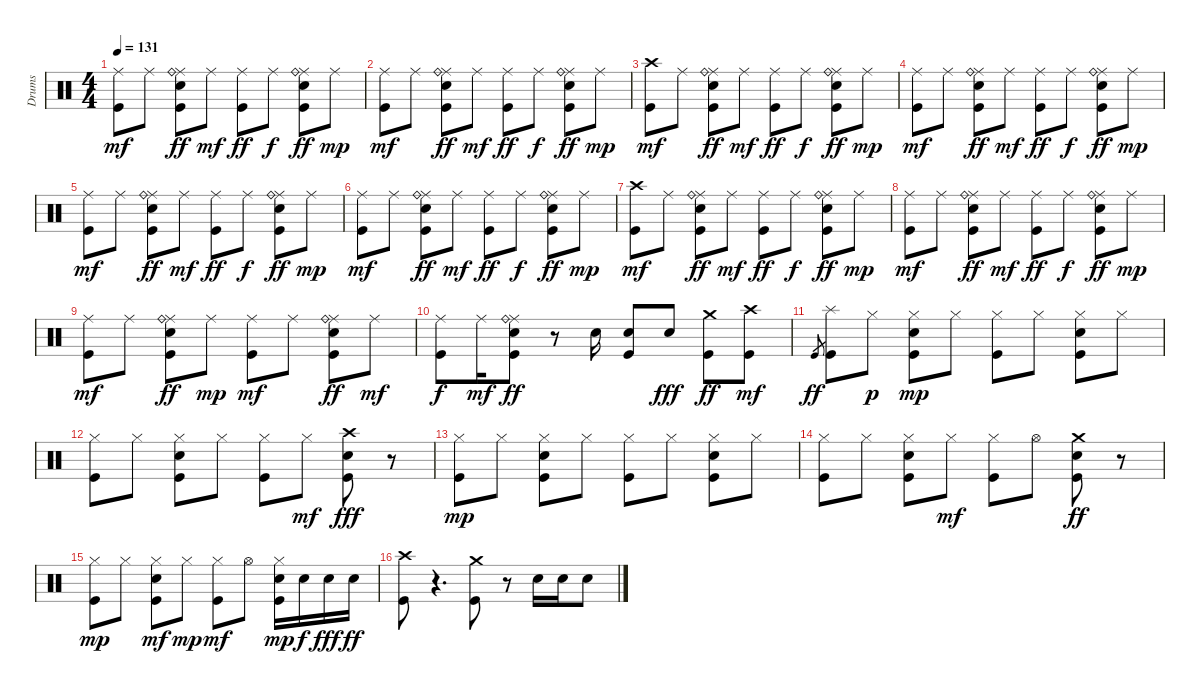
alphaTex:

\track ("Drums" "Drums") {instrument percussion}
\staff {score}
\articulation defaults
\ts (4 4)
\tempo 131
\clef neutral
\ks c
("Kick (hit)" "Ride (middle)").8{dy mf} "Ride (middle)".8 ("Kick (hit)" "Snare (hit) 2" "Ride (middle)" "Ride (bell)").8{dy ff} "Ride (middle)".8{dy mf} ("Kick (hit)" "Ride (middle)").8{dy ff} "Ride (middle)".8{dy f} ("Kick (hit)" "Snare (hit) 2" "Ride (middle)" "Ride (bell)").8{dy ff} "Ride (middle)".8{dy mp} |
("Kick (hit)" "Ride (middle)").8{dy mf} "Ride (middle)".8 ("Kick (hit)" "Snare (hit) 2" "Ride (middle)" "Ride (bell)").8{dy ff} "Ride (middle)".8{dy mf} ("Kick (hit)" "Ride (middle)").8{dy ff} "Ride (middle)".8{dy f} ("Kick (hit)" "Snare (hit) 2" "Ride (middle)" "Ride (bell)").8{dy ff} "Ride (middle)".8{dy mp} |
("Kick (hit)" "Crash high (hit)").8{dy mf} "Ride (middle)".8 ("Kick (hit)" "Snare (hit) 2" "Ride (middle)" "Ride (bell)").8{dy ff} "Ride (middle)".8{dy mf} ("Kick (hit)" "Ride (middle)").8{dy ff} "Ride (middle)".8{dy f} ("Kick (hit)" "Snare (hit) 2" "Ride (middle)" "Ride (bell)").8{dy ff} "Ride (middle)".8{dy mp} |
("Kick (hit)" "Ride (middle)").8{dy mf} "Ride (middle)".8 ("Kick (hit)" "Snare (hit) 2" "Ride (middle)" "Ride (bell)").8{dy ff} "Ride (middle)".8{dy mf} ("Kick (hit)" "Ride (middle)").8{dy ff} "Ride (middle)".8{dy f} ("Kick (hit)" "Snare (hit) 2" "Ride (middle)" "Ride (bell)").8{dy ff} "Ride (middle)".8{dy mp} |
("Kick (hit)" "Ride (middle)").8{dy mf} "Ride (middle)".8 ("Kick (hit)" "Snare (hit) 2" "Ride (middle)" "Ride (bell)").8{dy ff} "Ride (middle)".8{dy mf} ("Kick (hit)" "Ride (middle)").8{dy ff} "Ride (middle)".8{dy f} ("Kick (hit)" "Snare (hit) 2" "Ride (middle)" "Ride (bell)").8{dy ff} "Ride (middle)".8{dy mp} |
("Kick (hit)" "Ride (middle)").8{dy mf} "Ride (middle)".8 ("Kick (hit)" "Snare (hit) 2" "Ride (middle)" "Ride (bell)").8{dy ff} "Ride (middle)".8{dy mf} ("Kick (hit)" "Ride (middle)").8{dy ff} "Ride (middle)".8{dy f} ("Kick (hit)" "Snare (hit) 2" "Ride (middle)" "Ride (bell)").8{dy ff} "Ride (middle)".8{dy mp} |
("Kick (hit)" "Crash high (hit)").8{dy mf} "Ride (middle)".8 ("Kick (hit)" "Snare (hit) 2" "Ride (middle)" "Ride (bell)").8{dy ff} "Ride (middle)".8{dy mf} ("Kick (hit)" "Ride (middle)").8{dy ff} "Ride (middle)".8{dy f} ("Kick (hit)" "Snare (hit) 2" "Ride (middle)" "Ride (bell)").8{dy ff} "Ride (middle)".8{dy mp} |
("Kick (hit)" "Ride (middle)").8{dy mf} "Ride (middle)".8 ("Kick (hit)" "Snare (hit) 2" "Ride (middle)" "Ride (bell)").8{dy ff} "Ride (middle)".8{dy mf} ("Kick (hit)" "Ride (middle)").8{dy ff} "Ride (middle)".8{dy f} ("Kick (hit)" "Snare (hit) 2" "Ride (middle)" "Ride (bell)").8{dy ff} "Ride (middle)".8{dy mp} |
("Kick (hit)" "Ride (middle)").8{dy mf} "Ride (middle)".8 ("Kick (hit)" "Snare (hit) 2" "Ride (middle)" "Ride (bell)").8{dy ff} "Ride (middle)".8{dy mp} ("Kick (hit)" "Ride (middle)").8{dy mf} "Ride (middle)".8 ("Snare (hit) 2" "Kick (hit)" "Ride (middle)" "Ride (bell)").8{dy ff} "Ride (middle)".8{dy mf} |
("Kick (hit)" "Ride (middle)").8{dy f} "Ride (middle)".16{dy mf} ("Kick (hit)" "Snare (hit) 2" "Ride (middle)" "Ride (bell)").8{dy ff} r.8 "Snare (hit) 2".16 ("Kick (hit)" "Snare (hit) 2").8 "Snare (hit) 2".8{dy fff} ("Kick (hit)" "Crash medium (hit)").8{dy ff} ("Kick (hit)" "Crash high (hit)").8{dy mf} |
"Kick (hit)".8{gr dy ff} ("Kick (hit)" "Splash (hit)").8 "Hi-Hat (closed)".8{dy p} ("Kick (hit)" "Snare (hit) 2" "Hi-Hat (closed)").8{dy mp} "Hi-Hat (closed)".8 ("Kick (hit)" "Hi-Hat (closed)").8 "Hi-Hat (closed)".8 ("Kick (hit)" "Snare (hit) 2" "Hi-Hat (closed)").8 "Hi-Hat (closed)".8 |
("Kick (hit)" "Hi-Hat (closed)").8 "Hi-Hat (closed)".8 ("Kick (hit)" "Snare (hit) 2" "Hi-Hat (closed)").8 "Hi-Hat (closed)".8 ("Kick (hit)" "Hi-Hat (closed)").8 "Hi-Hat (closed)".8{dy mf} ("Kick (hit)" "Snare (hit) 2" "Crash high (hit)").8{dy fff} r.8 |
("Kick (hit)" "Hi-Hat (closed)").8{dy mp} "Hi-Hat (closed)".8 ("Kick (hit)" "Snare (hit) 2" "Hi-Hat (closed)").8 "Hi-Hat (closed)".8 ("Kick (hit)" "Hi-Hat (closed)").8 "Hi-Hat (closed)".8 ("Kick (hit)" "Snare (hit) 2" "Hi-Hat (closed)").8 "Hi-Hat (closed)".8 |
("Kick (hit)" "Hi-Hat (closed)").8 "Hi-Hat (closed)".8 ("Kick (hit)" "Snare (hit) 2" "Hi-Hat (closed)").8 "Hi-Hat (closed)".8{dy mf} ("Kick (hit)" "Hi-Hat (closed)").8 "Hi-Hat (open)".8 ("Kick (hit)" "Snare (hit) 2" "Crash medium (hit)").8{dy ff} r.8 |
("Kick (hit)" "Hi-Hat (closed)").8{dy mp} "Hi-Hat (closed)".8 ("Kick (hit)" "Snare (hit) 2" "Hi-Hat (closed)").8{dy mf} "Hi-Hat (closed)".8{dy mp} ("Kick (hit)" "Hi-Hat (closed)").8{dy mf} "Hi-Hat (open)".8 ("Kick (hit)" "Snare (hit) 2" "Hi-Hat (closed)").16{dy mp} "Snare (hit) 2".16{dy f} "Snare (hit) 2".16{dy fff} "Snare (hit) 2".16{dy ff} |
("Kick (hit)" "Crash high (hit)").8 r.4{d} ("Kick (hit)" "Crash medium (hit)").8 r.8 "Snare (hit) 2".16 "Snare (hit) 2".16 "Snare (hit) 2".8
